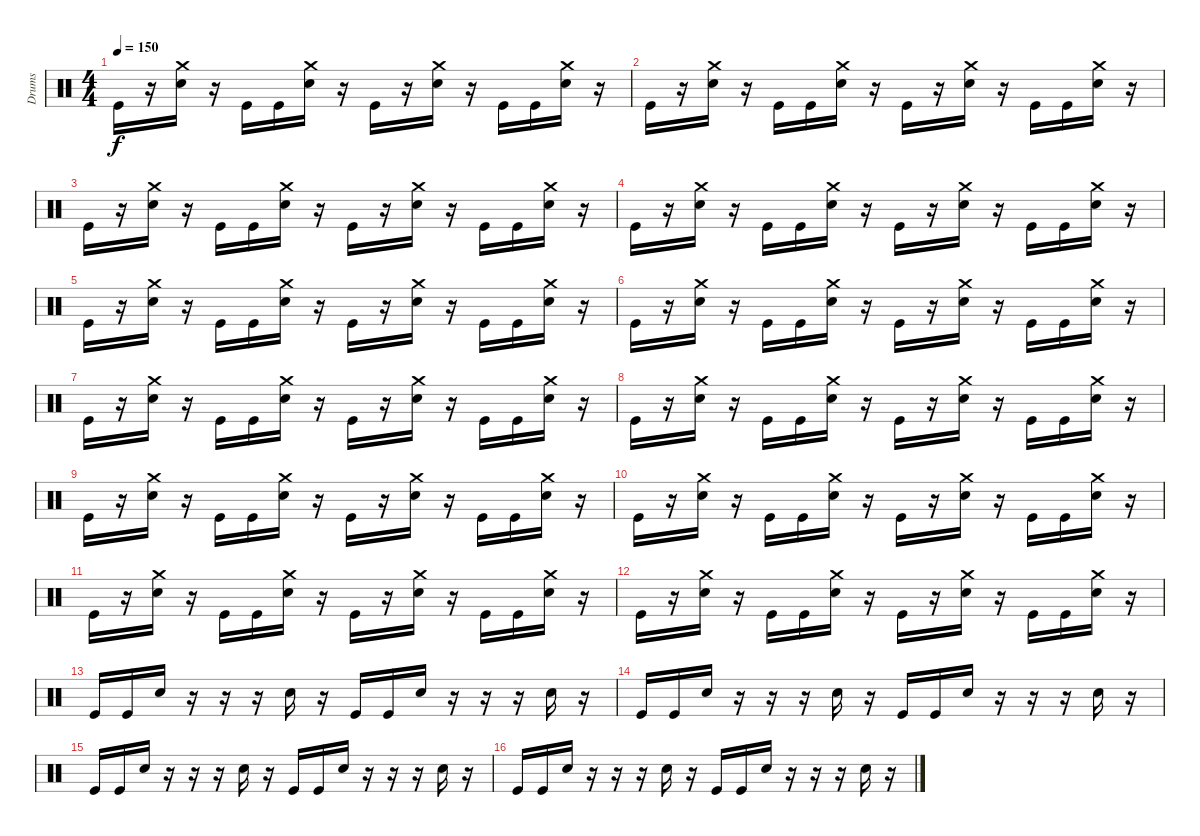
\track ("Drums" "Drums") {instrument percussion}
\staff {score}
\articulation defaults
\ts (4 4)
\tempo 150
\clef neutral
\ks c "Kick (hit)".16{dy f}
r.16 ("Crash medium (hit)" "Snare (hit) 2").16 r.16 "Kick (hit)".16 "Kick (hit)".16 ("Crash medium (hit)" "Snare (hit) 2").16 r.16 "Kick (hit)".16 r.16 ("Crash medium (hit)" "Snare (hit) 2").16 r.16 "Kick (hit)".16 "Kick (hit)".16 ("Crash medium (hit)" "Snare (hit) 2").16 r.16 |
"Kick (hit)".16 r.16 ("Crash medium (hit)" "Snare (hit) 2").16 r.16 "Kick (hit)".16 "Kick (hit)".16 ("Crash medium (hit)" "Snare (hit) 2").16 r.16 "Kick (hit)".16 r.16 ("Crash medium (hit)" "Snare (hit) 2").16 r.16 "Kick (hit)".16 "Kick (hit)".16 ("Crash medium (hit)" "Snare (hit) 2").16 r.16 |
"Kick (hit)".16 r.16 ("Crash medium (hit)" "Snare (hit) 2").16 r.16 "Kick (hit)".16 "Kick (hit)".16 ("Crash medium (hit)" "Snare (hit) 2").16 r.16 "Kick (hit)".16 r.16 ("Crash medium (hit)" "Snare (hit) 2").16 r.16 "Kick (hit)".16 "Kick (hit)".16 ("Crash medium (hit)" "Snare (hit) 2").16 r.16 |
"Kick (hit)".16 r.16 ("Crash medium (hit)" "Snare (hit) 2").16 r.16 "Kick (hit)".16 "Kick (hit)".16 ("Crash medium (hit)" "Snare (hit) 2").16 r.16 "Kick (hit)".16 r.16 ("Crash medium (hit)" "Snare (hit) 2").16 r.16 "Kick (hit)".16 "Kick (hit)".16 ("Crash medium (hit)" "Snare (hit) 2").16 r.16 |
"Kick (hit)".16 r.16 ("Crash medium (hit)" "Snare (hit) 2").16 r.16 "Kick (hit)".16 "Kick (hit)".16 ("Crash medium (hit)" "Snare (hit) 2").16 r.16 "Kick (hit)".16 r.16 ("Crash medium (hit)" "Snare (hit) 2").16 r.16 "Kick (hit)".16 "Kick (hit)".16 ("Crash medium (hit)" "Snare (hit) 2").16 r.16 |
"Kick (hit)".16 r.16 ("Crash medium (hit)" "Snare (hit) 2").16 r.16 "Kick (hit)".16 "Kick (hit)".16 ("Crash medium (hit)" "Snare (hit) 2").16 r.16 "Kick (hit)".16 r.16 ("Crash medium (hit)" "Snare (hit) 2").16 r.16 "Kick (hit)".16 "Kick (hit)".16 ("Crash medium (hit)" "Snare (hit) 2").16 r.16 |
"Kick (hit)".16 r.16 ("Crash medium (hit)" "Snare (hit) 2").16 r.16 "Kick (hit)".16 "Kick (hit)".16 ("Crash medium (hit)" "Snare (hit) 2").16 r.16 "Kick (hit)".16 r.16 ("Crash medium (hit)" "Snare (hit) 2").16 r.16 "Kick (hit)".16 "Kick (hit)".16 ("Crash medium (hit)" "Snare (hit) 2").16 r.16 |
"Kick (hit)".16 r.16 ("Crash medium (hit)" "Snare (hit) 2").16 r.16 "Kick (hit)".16 "Kick (hit)".16 ("Crash medium (hit)" "Snare (hit) 2").16 r.16 "Kick (hit)".16 r.16 ("Crash medium (hit)" "Snare (hit) 2").16 r.16 "Kick (hit)".16 "Kick (hit)".16 ("Crash medium (hit)" "Snare (hit) 2").16 r.16 |
"Kick (hit)".16 r.16 ("Crash medium (hit)" "Snare (hit) 2").16 r.16 "Kick (hit)".16 "Kick (hit)".16 ("Crash medium (hit)" "Snare (hit) 2").16 r.16 "Kick (hit)".16 r.16 ("Crash medium (hit)" "Snare (hit) 2").16 r.16 "Kick (hit)".16 "Kick (hit)".16 ("Crash medium (hit)" "Snare (hit) 2").16 r.16 |
"Kick (hit)".16 r.16 ("Crash medium (hit)" "Snare (hit) 2").16 r.16 "Kick (hit)".16 "Kick (hit)".16 ("Crash medium (hit)" "Snare (hit) 2").16 r.16 "Kick (hit)".16 r.16 ("Crash medium (hit)" "Snare (hit) 2").16 r.16 "Kick (hit)".16 "Kick (hit)".16 ("Crash medium (hit)" "Snare (hit) 2").16 r.16 |
"Kick (hit)".16 r.16 ("Crash medium (hit)" "Snare (hit) 2").16 r.16 "Kick (hit)".16 "Kick (hit)".16 ("Crash medium (hit)" "Snare (hit) 2").16 r.16 "Kick (hit)".16 r.16 ("Crash medium (hit)" "Snare (hit) 2").16 r.16 "Kick (hit)".16 "Kick (hit)".16 ("Crash medium (hit)" "Snare (hit) 2").16 r.16 |
"Kick (hit)".16 r.16 ("Crash medium (hit)" "Snare (hit) 2").16 r.16 "Kick (hit)".16 "Kick (hit)".16 ("Crash medium (hit)" "Snare (hit) 2").16 r.16 "Kick (hit)".16 r.16 ("Crash medium (hit)" "Snare (hit) 2").16 r.16 "Kick (hit)".16 "Kick (hit)".16 ("Crash medium (hit)" "Snare (hit) 2").16 r.16 |
"Kick (hit)".16 "Kick (hit)".16 "Snare (hit) 2".16 r.16 r.16 r.16 "Snare (hit) 2".16 r.16 "Kick (hit)".16 "Kick (hit)".16 "Snare (hit) 2".16 r.16 r.16 r.16 "Snare (hit) 2".16 r.16 |
"Kick (hit)".16 "Kick (hit)".16 "Snare (hit) 2".16 r.16 r.16 r.16 "Snare (hit) 2".16 r.16 "Kick (hit)".16 "Kick (hit)".16 "Snare (hit) 2".16 r.16 r.16 r.16 "Snare (hit) 2".16 r.16 |
"Kick (hit)".16 "Kick (hit)".16 "Snare (hit) 2".16 r.16 r.16 r.16 "Snare (hit) 2".16 r.16 "Kick (hit)".16 "Kick (hit)".16 "Snare (hit) 2".16 r.16 r.16 r.16 "Snare (hit) 2".16 r.16 |
"Kick (hit)".16 "Kick (hit)".16 "Snare (hit) 2".16 r.16 r.16 r.16 "Snare (hit) 2".16 r.16 "Kick (hit)".16 "Kick (hit)".16 "Snare (hit) 2".16 r.16 r.16 r.16 "Snare (hit) 2".16 r.16
